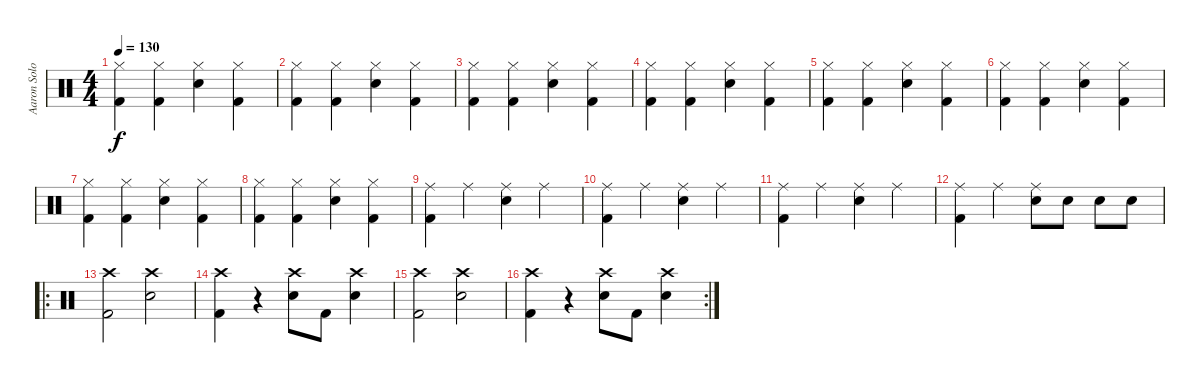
\track ("Aaron Solowoniuk" "Aaron Solo") {instrument percussion}
\staff {score}
\articulation defaults
\ts (4 4)
\tempo 130
\clef neutral
\ks c
("Hi-Hat (closed)" "Kick (hit) 2").4{dy f} ("Hi-Hat (closed)" "Kick (hit) 2").4 ("Hi-Hat (closed)" "Electric Snare (hit)").4 ("Hi-Hat (closed)" "Kick (hit) 2").4 |
("Hi-Hat (closed)" "Kick (hit) 2").4 ("Hi-Hat (closed)" "Kick (hit) 2").4 ("Hi-Hat (closed)" "Electric Snare (hit)").4 ("Hi-Hat (closed)" "Kick (hit) 2").4 |
("Hi-Hat (closed)" "Kick (hit) 2").4 ("Hi-Hat (closed)" "Kick (hit) 2").4 ("Hi-Hat (closed)" "Electric Snare (hit)").4 ("Hi-Hat (closed)" "Kick (hit) 2").4 |
("Hi-Hat (closed)" "Kick (hit) 2").4 ("Hi-Hat (closed)" "Kick (hit) 2").4 ("Hi-Hat (closed)" "Electric Snare (hit)").4 ("Hi-Hat (closed)" "Kick (hit) 2").4 |
("Hi-Hat (closed)" "Kick (hit) 2").4 ("Hi-Hat (closed)" "Kick (hit) 2").4 ("Hi-Hat (closed)" "Electric Snare (hit)").4 ("Hi-Hat (closed)" "Kick (hit) 2").4 |
("Hi-Hat (closed)" "Kick (hit) 2").4 ("Hi-Hat (closed)" "Kick (hit) 2").4 ("Hi-Hat (closed)" "Electric Snare (hit)").4 ("Hi-Hat (closed)" "Kick (hit) 2").4 |
("Hi-Hat (closed)" "Kick (hit) 2").4 ("Hi-Hat (closed)" "Kick (hit) 2").4 ("Hi-Hat (closed)" "Electric Snare (hit)").4 ("Hi-Hat (closed)" "Kick (hit) 2").4 |
("Hi-Hat (closed)" "Kick (hit) 2").4 ("Hi-Hat (closed)" "Kick (hit) 2").4 ("Hi-Hat (closed)" "Electric Snare (hit)").4 ("Hi-Hat (closed)" "Kick (hit) 2").4 |
("Ride (middle)" "Kick (hit) 2").4 "Ride (middle)".4 ("Ride (middle)" "Electric Snare (hit)").4 "Ride (middle)".4 |
("Ride (middle)" "Kick (hit) 2").4 "Ride (middle)".4 ("Ride (middle)" "Electric Snare (hit)").4 "Ride (middle)".4 |
("Ride (middle)" "Kick (hit) 2").4 "Ride (middle)".4 ("Ride (middle)" "Electric Snare (hit)").4 "Ride (middle)".4 |
("Ride (middle)" "Kick (hit) 2").4 "Ride (middle)".4 ("Ride (middle)" "Electric Snare (hit)").8 "Electric Snare (hit)".8 "Electric Snare (hit)".8 "Electric Snare (hit)".8 |
\ro
("Crash high (hit)" "Kick (hit) 2").2 ("Crash high (hit)" "Electric Snare (hit)").2 |
("Crash high (hit)" "Kick (hit) 2").4 r.4 ("Crash high (hit)" "Electric Snare (hit)").8 "Kick (hit) 2".8 ("Crash high (hit)" "Electric Snare (hit)").4 |
("Crash high (hit)" "Kick (hit) 2").2 ("Crash high (hit)" "Electric Snare (hit)").2 |
\rc 2
("Crash high (hit)" "Kick (hit) 2").4 r.4 ("Crash high (hit)" "Electric Snare (hit)").8 "Kick (hit) 2".8 ("Crash high (hit)" "Electric Snare (hit)").4
